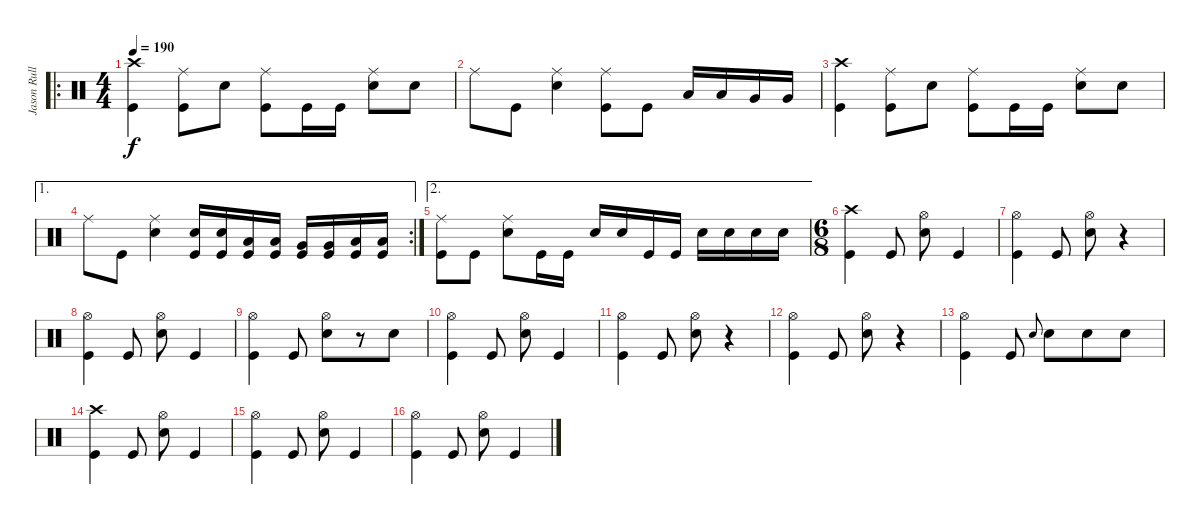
\track ("Jason Rullo - Drums and Percussion" "Jason Rull") {instrument percussion}
\staff {score}
\articulation defaults
\ro
\ts (4 4)
\tempo 190
\clef neutral
\ks c
("Crash high (hit)" "Kick (hit)").4{dy f} ("Ride (middle)" "Kick (hit)").8 "Snare (hit) 2".8 ("Kick (hit)" "Ride (middle)").8 "Kick (hit)".16 "Kick (hit)".16 ("Snare (hit) 2" "Ride (middle)").8 "Snare (hit) 2".8 |
"Ride (middle)".8 "Kick (hit)".8 ("Snare (hit) 2" "Ride (middle)").4 ("Kick (hit)" "Ride (middle)").8 "Kick (hit)".8 "Low Tom (hit)".16 "Low Tom (hit)".16 "Very Low Tom (hit)".16 "Very Low Tom (hit)".16 |
("Crash high (hit)" "Kick (hit)").4 ("Ride (middle)" "Kick (hit)").8 "Snare (hit) 2".8 ("Kick (hit)" "Ride (middle)").8 "Kick (hit)".16 "Kick (hit)".16 ("Snare (hit) 2" "Ride (middle)").8 "Snare (hit) 2".8 |
\ae 1
\rc 2 "Ride (middle)".8 "Kick (hit)".8
("Snare (hit) 2" "Ride (middle)").4 ("Snare (hit) 2" "Kick (hit)").16 ("Snare (hit) 2" "Kick (hit)").16 ("Low Tom (hit)" "Kick (hit)").16 ("Low Tom (hit)" "Kick (hit)").16 ("Very Low Tom (hit)" "Kick (hit)").16 ("Very Low Tom (hit)" "Kick (hit)").16 ("Low Floor Tom (hit)" "Kick (hit)").16 ("Low Floor Tom (hit)" "Kick (hit)").16 |
\ae 2
("Kick (hit)" "Ride (middle)").8 "Kick (hit)".8 ("Snare (hit) 2" "Ride (middle)").8 "Kick (hit)".16 "Kick (hit)".16 "Snare (hit) 2".16 "Snare (hit) 2".16 "Kick (hit)".16 "Kick (hit)".16 "Snare (hit) 2".16 "Snare (hit) 2".16 "Snare (hit) 2".16 "Snare (hit) 2".16 |
\ts (6 8)
("Kick (hit)" "Crash high (hit)").4 "Kick (hit)".8 ("Snare (hit) 2" "Hi-Hat (open)").8 "Kick (hit)".4 |
("Kick (hit)" "Hi-Hat (open)").4 "Kick (hit)".8 ("Snare (hit) 2" "Hi-Hat (open)").8 r.4 |
("Kick (hit)" "Hi-Hat (open)").4 "Kick (hit)".8 ("Snare (hit) 2" "Hi-Hat (open)").8 "Kick (hit)".4 |
("Kick (hit)" "Hi-Hat (open)").4 "Kick (hit)".8 ("Snare (hit) 2" "Hi-Hat (open)").8 r.8 "Snare (hit) 2".8 |
("Kick (hit)" "Hi-Hat (open)").4 "Kick (hit)".8 ("Snare (hit) 2" "Hi-Hat (open)").8 "Kick (hit)".4 |
("Kick (hit)" "Hi-Hat (open)").4 "Kick (hit)".8 ("Snare (hit) 2" "Hi-Hat (open)").8 r.4 |
("Kick (hit)" "Hi-Hat (open)").4 "Kick (hit)".8 ("Snare (hit) 2" "Hi-Hat (open)").8 r.4 |
("Kick (hit)" "Hi-Hat (open)").4 "Kick (hit)".8 "Snare (hit) 2".8{gr onbeat} "Snare (hit) 2".8 "Snare (hit) 2".8 "Snare (hit) 2".8 |
("Kick (hit)" "Crash high (hit)").4 "Kick (hit)".8 ("Snare (hit) 2" "Hi-Hat (open)").8 "Kick (hit)".4 |
("Kick (hit)" "Hi-Hat (open)").4 "Kick (hit)".8 ("Snare (hit) 2" "Hi-Hat (open)").8 "Kick (hit)".4 |
("Kick (hit)" "Hi-Hat (open)").4 "Kick (hit)".8 ("Snare (hit) 2" "Hi-Hat (open)").8 "Kick (hit)".4
